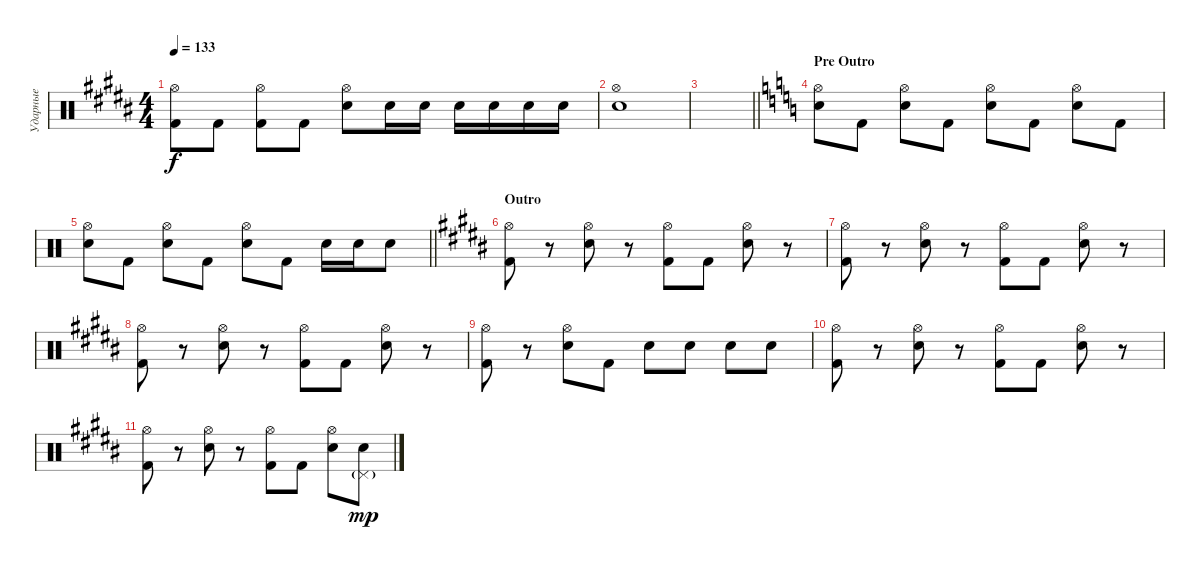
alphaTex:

\track ("Ударные" "Ударные") {instrument percussion}
\staff {score}
\articulation defaults
\ts (4 4)
\tempo 133
\clef neutral
\ks b
("Hi-Hat (open)" "Kick (hit) 2").8{dy f} "Kick (hit) 2".8 ("Hi-Hat (open)" "Kick (hit) 2").8 "Kick (hit) 2".8 ("Hi-Hat (open)" "Electric Snare (hit)").8 "Electric Snare (hit)".16 "Electric Snare (hit)".16 "Electric Snare (hit)".16 "Electric Snare (hit)".16 "Electric Snare (hit)".16 "Electric Snare (hit)".16 |
("Hi-Hat (open)" "Electric Snare (hit)").1 |
\barLineRight lightlight
|
\section ("" "Pre Outro")
\ks c
("Hi-Hat (open)" "Electric Snare (hit)").8 "Kick (hit) 2".8 ("Hi-Hat (open)" "Electric Snare (hit)").8 "Kick (hit) 2".8 ("Hi-Hat (open)" "Electric Snare (hit)").8 "Kick (hit) 2".8 ("Hi-Hat (open)" "Electric Snare (hit)").8 "Kick (hit) 2".8 |
\barLineRight lightlight
("Hi-Hat (open)" "Electric Snare (hit)").8 "Kick (hit) 2".8 ("Hi-Hat (open)" "Electric Snare (hit)").8 "Kick (hit) 2".8 ("Hi-Hat (open)" "Electric Snare (hit)").8 "Kick (hit) 2".8 "Electric Snare (hit)".16 "Electric Snare (hit)".16 "Electric Snare (hit)".8 |
\section ("" "Outro")
\ks b
("Hi-Hat (open)" "Kick (hit) 2").8 r.8 ("Hi-Hat (open)" "Electric Snare (hit)").8 r.8 ("Hi-Hat (open)" "Kick (hit) 2").8 "Kick (hit) 2".8 ("Hi-Hat (open)" "Electric Snare (hit)").8 r.8 |
("Hi-Hat (open)" "Kick (hit) 2").8 r.8 ("Hi-Hat (open)" "Electric Snare (hit)").8 r.8 ("Hi-Hat (open)" "Kick (hit) 2").8 "Kick (hit) 2".8 ("Hi-Hat (open)" "Electric Snare (hit)").8 r.8 |
("Hi-Hat (open)" "Kick (hit) 2").8 r.8 ("Hi-Hat (open)" "Electric Snare (hit)").8 r.8 ("Hi-Hat (open)" "Kick (hit) 2").8 "Kick (hit) 2".8 ("Hi-Hat (open)" "Electric Snare (hit)").8 r.8 |
("Hi-Hat (open)" "Kick (hit) 2").8 r.8 ("Hi-Hat (open)" "Electric Snare (hit)").8 "Kick (hit) 2".8 "Electric Snare (hit)".8 "Electric Snare (hit)".8 "Electric Snare (hit)".8 "Electric Snare (hit)".8 |
("Hi-Hat (open)" "Kick (hit) 2").8 r.8 ("Hi-Hat (open)" "Electric Snare (hit)").8 r.8 ("Hi-Hat (open)" "Kick (hit) 2").8 "Kick (hit) 2".8 ("Hi-Hat (open)" "Electric Snare (hit)").8 r.8 |
("Hi-Hat (open)" "Kick (hit) 2").8 r.8 ("Hi-Hat (open)" "Electric Snare (hit)").8 r.8 ("Hi-Hat (open)" "Kick (hit) 2").8 "Kick (hit) 2".8 ("Hi-Hat (open)" "Electric Snare (hit)").8 ("Pedal Hi-Hat (hit)"{g} "Electric Snare (hit)").8{dy mp}
